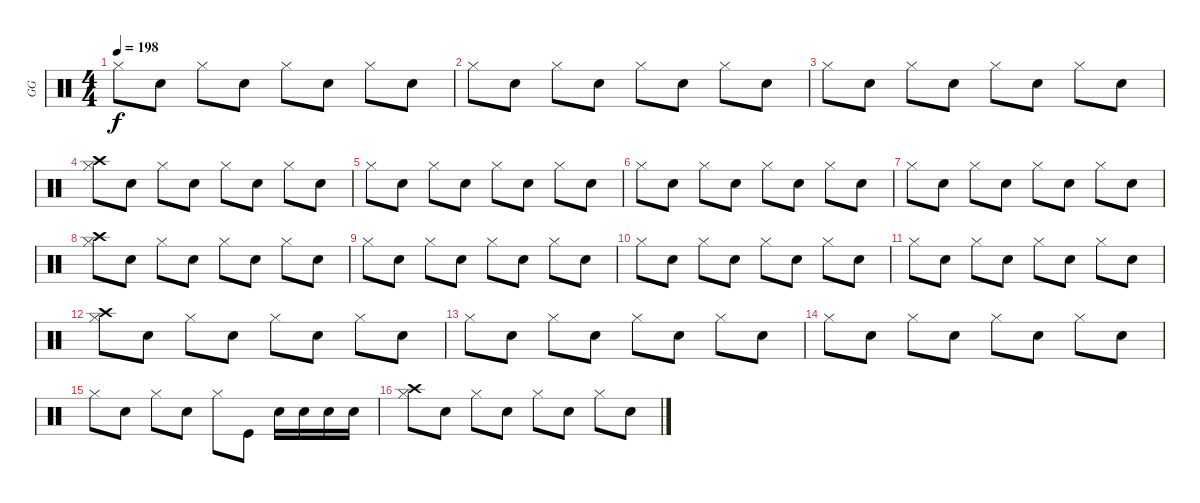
\track ("GG" "GG") {instrument percussion}
\staff {score}
\articulation defaults
\ts (4 4)
\tempo 198
\clef neutral
\ks c "Hi-Hat (closed)".8{dy f} "Snare (hit) 2".8 "Hi-Hat (closed)".8 "Snare (hit) 2".8 "Hi-Hat (closed)".8 "Snare (hit) 2".8 "Hi-Hat (closed)".8 "Snare (hit) 2".8
|
"Hi-Hat (closed)".8 "Snare (hit) 2".8 "Hi-Hat (closed)".8 "Snare (hit) 2".8 "Hi-Hat (closed)".8 "Snare (hit) 2".8 "Hi-Hat (closed)".8 "Snare (hit) 2".8 |
"Hi-Hat (closed)".8 "Snare (hit) 2".8 "Hi-Hat (closed)".8 "Snare (hit) 2".8 "Hi-Hat (closed)".8 "Snare (hit) 2".8 "Hi-Hat (closed)".8 "Snare (hit) 2".8 |
("Crash high (hit)" "Hi-Hat (closed)").8 "Snare (hit) 2".8 "Hi-Hat (closed)".8 "Snare (hit) 2".8 "Hi-Hat (closed)".8 "Snare (hit) 2".8 "Hi-Hat (closed)".8 "Snare (hit) 2".8 |
"Hi-Hat (closed)".8 "Snare (hit) 2".8 "Hi-Hat (closed)".8 "Snare (hit) 2".8 "Hi-Hat (closed)".8 "Snare (hit) 2".8 "Hi-Hat (closed)".8 "Snare (hit) 2".8 |
"Hi-Hat (closed)".8 "Snare (hit) 2".8 "Hi-Hat (closed)".8 "Snare (hit) 2".8 "Hi-Hat (closed)".8 "Snare (hit) 2".8 "Hi-Hat (closed)".8 "Snare (hit) 2".8 |
"Hi-Hat (closed)".8 "Snare (hit) 2".8 "Hi-Hat (closed)".8 "Snare (hit) 2".8 "Hi-Hat (closed)".8 "Snare (hit) 2".8 "Hi-Hat (closed)".8 "Snare (hit) 2".8 |
("Crash high (hit)" "Hi-Hat (closed)").8 "Snare (hit) 2".8 "Hi-Hat (closed)".8 "Snare (hit) 2".8 "Hi-Hat (closed)".8 "Snare (hit) 2".8 "Hi-Hat (closed)".8 "Snare (hit) 2".8 |
"Hi-Hat (closed)".8 "Snare (hit) 2".8 "Hi-Hat (closed)".8 "Snare (hit) 2".8 "Hi-Hat (closed)".8 "Snare (hit) 2".8 "Hi-Hat (closed)".8 "Snare (hit) 2".8 |
"Hi-Hat (closed)".8 "Snare (hit) 2".8 "Hi-Hat (closed)".8 "Snare (hit) 2".8 "Hi-Hat (closed)".8 "Snare (hit) 2".8 "Hi-Hat (closed)".8 "Snare (hit) 2".8 |
"Hi-Hat (closed)".8 "Snare (hit) 2".8 "Hi-Hat (closed)".8 "Snare (hit) 2".8 "Hi-Hat (closed)".8 "Snare (hit) 2".8 "Hi-Hat (closed)".8 "Snare (hit) 2".8 |
("Crash high (hit)" "Hi-Hat (closed)").8 "Snare (hit) 2".8 "Hi-Hat (closed)".8 "Snare (hit) 2".8 "Hi-Hat (closed)".8 "Snare (hit) 2".8 "Hi-Hat (closed)".8 "Snare (hit) 2".8 |
"Hi-Hat (closed)".8 "Snare (hit) 2".8 "Hi-Hat (closed)".8 "Snare (hit) 2".8 "Hi-Hat (closed)".8 "Snare (hit) 2".8 "Hi-Hat (closed)".8 "Snare (hit) 2".8 |
"Hi-Hat (closed)".8 "Snare (hit) 2".8 "Hi-Hat (closed)".8 "Snare (hit) 2".8 "Hi-Hat (closed)".8 "Snare (hit) 2".8 "Hi-Hat (closed)".8 "Snare (hit) 2".8 |
"Hi-Hat (closed)".8 "Snare (hit) 2".8 "Hi-Hat (closed)".8 "Snare (hit) 2".8 "Hi-Hat (closed)".8 "Kick (hit)".8 "Snare (hit) 2".16 "Snare (hit) 2".16 "Snare (hit) 2".16 "Snare (hit) 2".16 |
("Crash high (hit)" "Hi-Hat (closed)").8 "Snare (hit) 2".8 "Hi-Hat (closed)".8 "Snare (hit) 2".8 "Hi-Hat (closed)".8 "Snare (hit) 2".8 "Hi-Hat (closed)".8 "Snare (hit) 2".8
